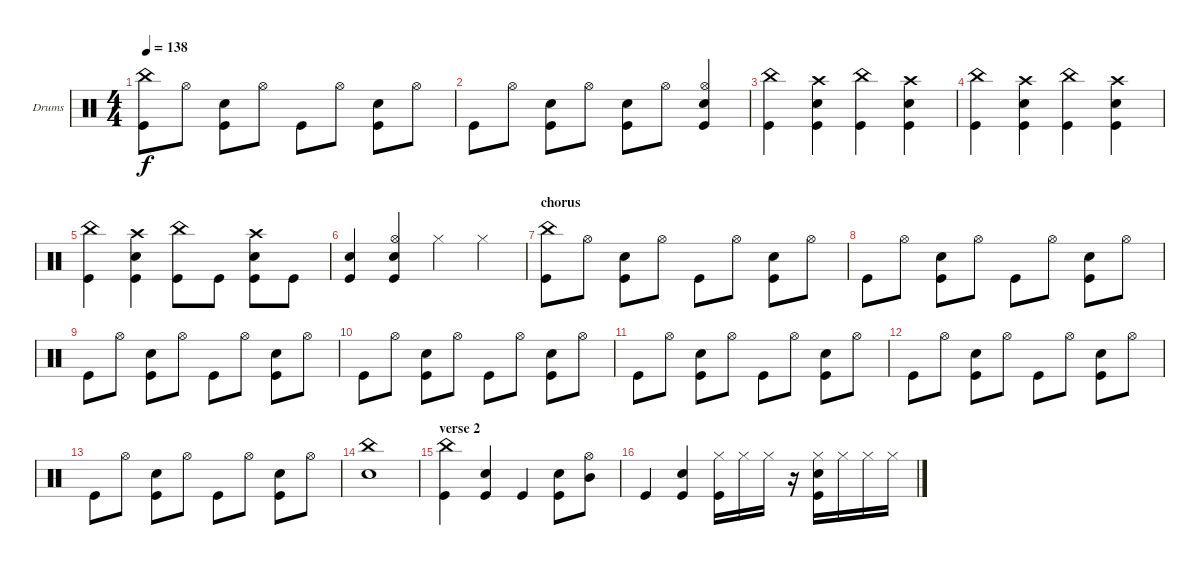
\bracketExtendMode groupsimilarinstruments
\firstSystemTrackNameOrientation horizontal
\otherSystemsTrackNameOrientation horizontal
\track ("Drumkit" "Drums") {instrument percussion}
\staff {score}
\articulation defaults
\ts (4 4)
\tempo 138
\clef neutral
\ks c
("China (hit)" "Kick (hit)").8{dy f} "Hi-Hat (open)".8 ("Snare (hit) 2" "Kick (hit)").8 "Hi-Hat (open)".8 "Kick (hit)".8 "Hi-Hat (open)".8 ("Snare (hit) 2" "Kick (hit)").8 "Hi-Hat (open)".8 |
"Kick (hit)".8 "Hi-Hat (open)".8 ("Snare (hit) 2" "Kick (hit)").8 "Hi-Hat (open)".8 ("Snare (hit) 2" "Kick (hit)").8 "Hi-Hat (open)".8 ("Hi-Hat (open)" "Snare (hit) 2" "Kick (hit)").4 |
("China (hit)" "Kick (hit)").4 ("Crash high (hit)" "Snare (hit) 2" "Kick (hit)").4 ("China (hit)" "Kick (hit)").4 ("Crash high (hit)" "Snare (hit) 2" "Kick (hit)").4 |
("China (hit)" "Kick (hit)").4 ("Crash high (hit)" "Snare (hit) 2" "Kick (hit)").4 ("China (hit)" "Kick (hit)").4 ("Crash high (hit)" "Snare (hit) 2" "Kick (hit)").4 |
("China (hit)" "Kick (hit)").4 ("Crash high (hit)" "Snare (hit) 2" "Kick (hit)").4 ("China (hit)" "Kick (hit)").8 "Kick (hit)".8 ("Crash high (hit)" "Snare (hit) 2" "Kick (hit)").8 "Kick (hit)".8 |
("Snare (hit) 2" "Kick (hit)").4 ("Hi-Hat (open)" "Snare (hit) 2" "Kick (hit)").4 "Hi-Hat (closed)".4 "Hi-Hat (closed)".4 |
\section ("" "chorus")
("China (hit)" "Kick (hit)").8 "Hi-Hat (open)".8 ("Snare (hit) 2" "Kick (hit)").8 "Hi-Hat (open)".8 "Kick (hit)".8 "Hi-Hat (open)".8 ("Snare (hit) 2" "Kick (hit)").8 "Hi-Hat (open)".8 |
"Kick (hit)".8 "Hi-Hat (open)".8 ("Snare (hit) 2" "Kick (hit)").8 "Hi-Hat (open)".8 "Kick (hit)".8 "Hi-Hat (open)".8 ("Snare (hit) 2" "Kick (hit)").8 "Hi-Hat (open)".8 |
"Kick (hit)".8 "Hi-Hat (open)".8 ("Snare (hit) 2" "Kick (hit)").8 "Hi-Hat (open)".8 "Kick (hit)".8 "Hi-Hat (open)".8 ("Snare (hit) 2" "Kick (hit)").8 "Hi-Hat (open)".8 |
"Kick (hit)".8 "Hi-Hat (open)".8 ("Snare (hit) 2" "Kick (hit)").8 "Hi-Hat (open)".8 "Kick (hit)".8 "Hi-Hat (open)".8 ("Snare (hit) 2" "Kick (hit)").8 "Hi-Hat (open)".8 |
"Kick (hit)".8 "Hi-Hat (open)".8 ("Snare (hit) 2" "Kick (hit)").8 "Hi-Hat (open)".8 "Kick (hit)".8 "Hi-Hat (open)".8 ("Snare (hit) 2" "Kick (hit)").8 "Hi-Hat (open)".8 |
"Kick (hit)".8 "Hi-Hat (open)".8 ("Snare (hit) 2" "Kick (hit)").8 "Hi-Hat (open)".8 "Kick (hit)".8 "Hi-Hat (open)".8 ("Snare (hit) 2" "Kick (hit)").8 "Hi-Hat (open)".8 |
"Kick (hit)".8 "Hi-Hat (open)".8 ("Snare (hit) 2" "Kick (hit)").8 "Hi-Hat (open)".8 "Kick (hit)".8 "Hi-Hat (open)".8 ("Snare (hit) 2" "Kick (hit)").8 "Hi-Hat (open)".8 |
("China (hit)" "Snare (hit) 2").1 |
\section ("" "verse 2")
("China (hit)" "Kick (hit)").4 ("Snare (hit) 2" "Kick (hit)").4 "Kick (hit)".4 ("Snare (hit) 2" "Kick (hit)").8 ("Hi-Hat (open)" "Mid Tom (hit)").8 |
"Kick (hit)".4 ("Snare (hit) 2" "Kick (hit)").4 ("Hi-Hat (closed)" "Kick (hit)").16 "Hi-Hat (closed)".16 "Hi-Hat (closed)".16 r.16 ("Hi-Hat (closed)" "Snare (hit) 2" "Kick (hit)").16 "Hi-Hat (closed)".16 "Hi-Hat (closed)".16 "Hi-Hat (closed)".16
